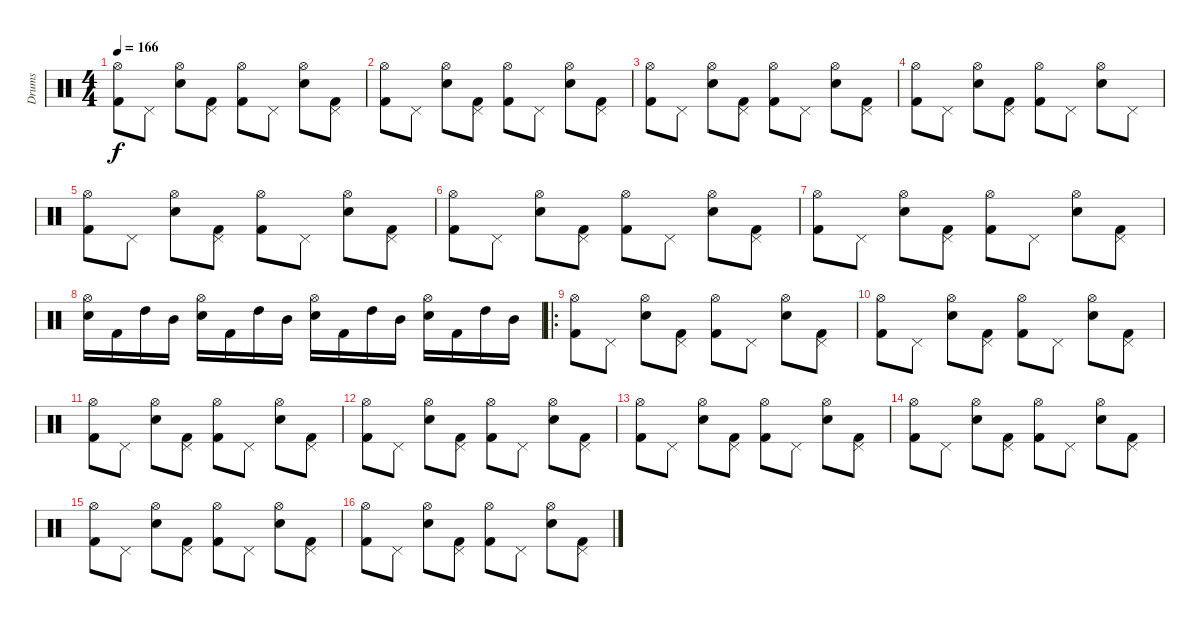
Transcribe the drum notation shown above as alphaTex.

\track ("Drums" "Drums") {instrument percussion}
\staff {score}
\articulation defaults
\ts (4 4)
\tempo 166
\clef neutral
\ks c
("Kick (hit) 2" "Hi-Hat (open)").8{dy f} "Pedal Hi-Hat (hit)".8 ("Snare (hit) 2" "Hi-Hat (open)").8 ("Kick (hit) 2" "Pedal Hi-Hat (hit)").8 ("Kick (hit) 2" "Hi-Hat (open)").8 "Pedal Hi-Hat (hit)".8 ("Snare (hit) 2" "Hi-Hat (open)").8 ("Kick (hit) 2" "Pedal Hi-Hat (hit)").8 |
("Kick (hit) 2" "Hi-Hat (open)").8 "Pedal Hi-Hat (hit)".8 ("Snare (hit) 2" "Hi-Hat (open)").8 ("Kick (hit) 2" "Pedal Hi-Hat (hit)").8 ("Kick (hit) 2" "Hi-Hat (open)").8 "Pedal Hi-Hat (hit)".8 ("Snare (hit) 2" "Hi-Hat (open)").8 ("Kick (hit) 2" "Pedal Hi-Hat (hit)").8 |
("Kick (hit) 2" "Hi-Hat (open)").8 "Pedal Hi-Hat (hit)".8 ("Snare (hit) 2" "Hi-Hat (open)").8 ("Kick (hit) 2" "Pedal Hi-Hat (hit)").8 ("Kick (hit) 2" "Hi-Hat (open)").8 "Pedal Hi-Hat (hit)".8 ("Snare (hit) 2" "Hi-Hat (open)").8 ("Kick (hit) 2" "Pedal Hi-Hat (hit)").8 |
("Kick (hit) 2" "Hi-Hat (open)").8 "Pedal Hi-Hat (hit)".8 ("Snare (hit) 2" "Hi-Hat (open)").8 ("Kick (hit) 2" "Pedal Hi-Hat (hit)").8 ("Kick (hit) 2" "Hi-Hat (open)").8 "Pedal Hi-Hat (hit)".8 ("Snare (hit) 2" "Hi-Hat (open)").8 "Pedal Hi-Hat (hit)".8 |
("Kick (hit) 2" "Hi-Hat (open)").8 "Pedal Hi-Hat (hit)".8 ("Snare (hit) 2" "Hi-Hat (open)").8 ("Kick (hit) 2" "Pedal Hi-Hat (hit)").8 ("Kick (hit) 2" "Hi-Hat (open)").8 "Pedal Hi-Hat (hit)".8 ("Snare (hit) 2" "Hi-Hat (open)").8 ("Kick (hit) 2" "Pedal Hi-Hat (hit)").8 |
("Kick (hit) 2" "Hi-Hat (open)").8 "Pedal Hi-Hat (hit)".8 ("Snare (hit) 2" "Hi-Hat (open)").8 ("Kick (hit) 2" "Pedal Hi-Hat (hit)").8 ("Kick (hit) 2" "Hi-Hat (open)").8 "Pedal Hi-Hat (hit)".8 ("Snare (hit) 2" "Hi-Hat (open)").8 ("Kick (hit) 2" "Pedal Hi-Hat (hit)").8 |
("Kick (hit) 2" "Hi-Hat (open)").8 "Pedal Hi-Hat (hit)".8 ("Snare (hit) 2" "Hi-Hat (open)").8 ("Kick (hit) 2" "Pedal Hi-Hat (hit)").8 ("Kick (hit) 2" "Hi-Hat (open)").8 "Pedal Hi-Hat (hit)".8 ("Snare (hit) 2" "Hi-Hat (open)").8 ("Kick (hit) 2" "Pedal Hi-Hat (hit)").8 |
("Snare (hit) 2" "Hi-Hat (open)").16 "Kick (hit) 2".16 "High Tom (hit)".16 "Mid Tom (hit)".16 ("Snare (hit) 2" "Hi-Hat (open)").16 "Kick (hit) 2".16 "High Tom (hit)".16 "Mid Tom (hit)".16 ("Snare (hit) 2" "Hi-Hat (open)").16 "Kick (hit) 2".16 "High Tom (hit)".16 "Mid Tom (hit)".16 ("Snare (hit) 2" "Hi-Hat (open)").16 "Kick (hit) 2".16 "High Tom (hit)".16 "Mid Tom (hit)".16 |
\ro
("Kick (hit) 2" "Hi-Hat (open)").8 "Pedal Hi-Hat (hit)".8 ("Snare (hit) 2" "Hi-Hat (open)").8 ("Kick (hit) 2" "Pedal Hi-Hat (hit)").8 ("Kick (hit) 2" "Hi-Hat (open)").8 "Pedal Hi-Hat (hit)".8 ("Snare (hit) 2" "Hi-Hat (open)").8 ("Kick (hit) 2" "Pedal Hi-Hat (hit)").8 |
("Kick (hit) 2" "Hi-Hat (open)").8 "Pedal Hi-Hat (hit)".8 ("Snare (hit) 2" "Hi-Hat (open)").8 ("Kick (hit) 2" "Pedal Hi-Hat (hit)").8 ("Kick (hit) 2" "Hi-Hat (open)").8 "Pedal Hi-Hat (hit)".8 ("Snare (hit) 2" "Hi-Hat (open)").8 ("Kick (hit) 2" "Pedal Hi-Hat (hit)").8 |
("Kick (hit) 2" "Hi-Hat (open)").8 "Pedal Hi-Hat (hit)".8 ("Snare (hit) 2" "Hi-Hat (open)").8 ("Kick (hit) 2" "Pedal Hi-Hat (hit)").8 ("Kick (hit) 2" "Hi-Hat (open)").8 "Pedal Hi-Hat (hit)".8 ("Snare (hit) 2" "Hi-Hat (open)").8 ("Kick (hit) 2" "Pedal Hi-Hat (hit)").8 |
("Kick (hit) 2" "Hi-Hat (open)").8 "Pedal Hi-Hat (hit)".8 ("Snare (hit) 2" "Hi-Hat (open)").8 ("Kick (hit) 2" "Pedal Hi-Hat (hit)").8 ("Kick (hit) 2" "Hi-Hat (open)").8 "Pedal Hi-Hat (hit)".8 ("Snare (hit) 2" "Hi-Hat (open)").8 ("Kick (hit) 2" "Pedal Hi-Hat (hit)").8 |
("Kick (hit) 2" "Hi-Hat (open)").8 "Pedal Hi-Hat (hit)".8 ("Snare (hit) 2" "Hi-Hat (open)").8 ("Kick (hit) 2" "Pedal Hi-Hat (hit)").8 ("Kick (hit) 2" "Hi-Hat (open)").8 "Pedal Hi-Hat (hit)".8 ("Snare (hit) 2" "Hi-Hat (open)").8 ("Kick (hit) 2" "Pedal Hi-Hat (hit)").8 |
("Kick (hit) 2" "Hi-Hat (open)").8 "Pedal Hi-Hat (hit)".8 ("Snare (hit) 2" "Hi-Hat (open)").8 ("Kick (hit) 2" "Pedal Hi-Hat (hit)").8 ("Kick (hit) 2" "Hi-Hat (open)").8 "Pedal Hi-Hat (hit)".8 ("Snare (hit) 2" "Hi-Hat (open)").8 ("Kick (hit) 2" "Pedal Hi-Hat (hit)").8 |
("Kick (hit) 2" "Hi-Hat (open)").8 "Pedal Hi-Hat (hit)".8 ("Snare (hit) 2" "Hi-Hat (open)").8 ("Kick (hit) 2" "Pedal Hi-Hat (hit)").8 ("Kick (hit) 2" "Hi-Hat (open)").8 "Pedal Hi-Hat (hit)".8 ("Snare (hit) 2" "Hi-Hat (open)").8 ("Kick (hit) 2" "Pedal Hi-Hat (hit)").8 |
("Kick (hit) 2" "Hi-Hat (open)").8 "Pedal Hi-Hat (hit)".8 ("Snare (hit) 2" "Hi-Hat (open)").8 ("Kick (hit) 2" "Pedal Hi-Hat (hit)").8 ("Kick (hit) 2" "Hi-Hat (open)").8 "Pedal Hi-Hat (hit)".8 ("Snare (hit) 2" "Hi-Hat (open)").8 ("Kick (hit) 2" "Pedal Hi-Hat (hit)").8
